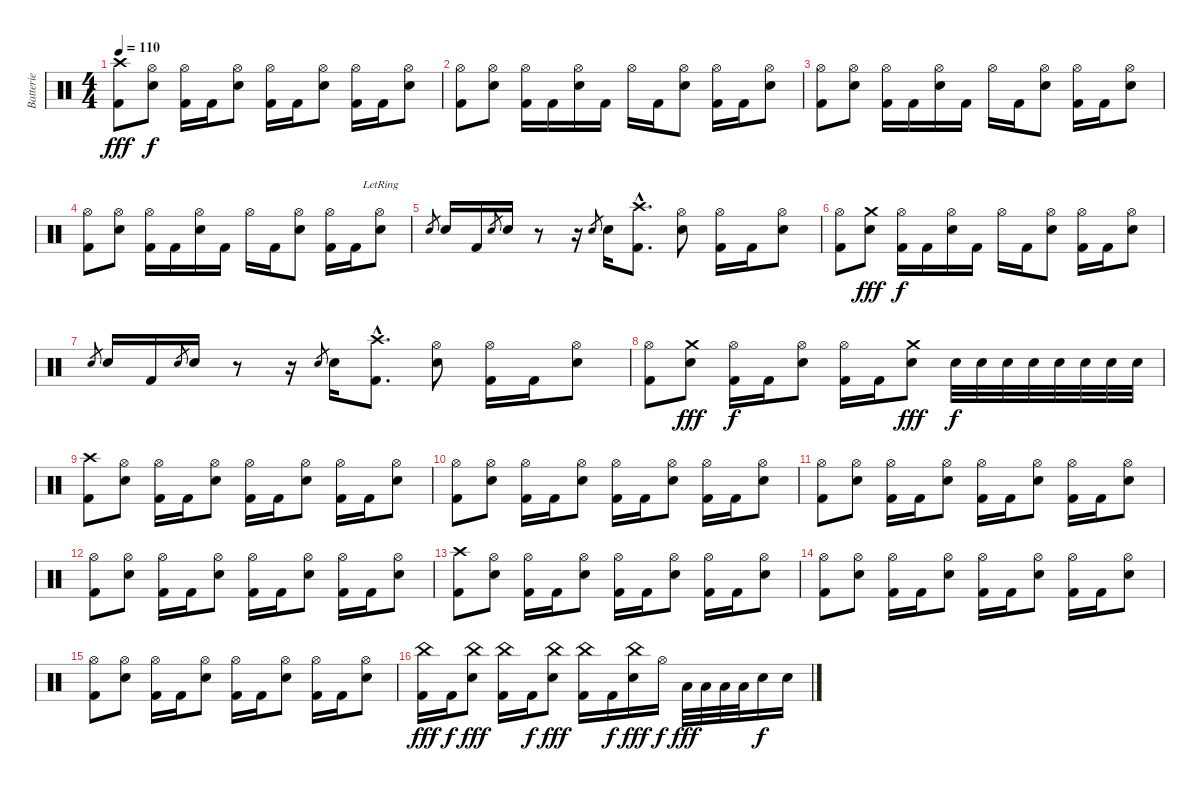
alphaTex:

\track ("Batterie" "Batterie") {instrument percussion}
\staff {score}
\articulation defaults
\ts (4 4)
\tempo 110
\clef neutral
\ks c
("Crash high (hit)" "Kick (hit) 2").8{dy fff} ("Hi-Hat (open)" "Snare (hit) 2").8{dy f} ("Hi-Hat (open)" "Kick (hit) 2").16 "Kick (hit) 2".16 ("Hi-Hat (open)" "Snare (hit) 2").8 ("Hi-Hat (open)" "Kick (hit) 2").16 "Kick (hit) 2".16 ("Hi-Hat (open)" "Snare (hit) 2").8 ("Hi-Hat (open)" "Kick (hit) 2").16 "Kick (hit) 2".16 ("Hi-Hat (open)" "Snare (hit) 2").8 |
("Hi-Hat (open)" "Kick (hit) 2").8 ("Hi-Hat (open)" "Snare (hit) 2").8 ("Hi-Hat (open)" "Kick (hit) 2").16 "Kick (hit) 2".16 ("Hi-Hat (open)" "Snare (hit) 2").16 "Kick (hit) 2".16 "Hi-Hat (open)".16 "Kick (hit) 2".16 ("Hi-Hat (open)" "Snare (hit) 2").8 ("Hi-Hat (open)" "Kick (hit) 2").16 "Kick (hit) 2".16 ("Hi-Hat (open)" "Snare (hit) 2").8 |
("Hi-Hat (open)" "Kick (hit) 2").8 ("Hi-Hat (open)" "Snare (hit) 2").8 ("Hi-Hat (open)" "Kick (hit) 2").16 "Kick (hit) 2".16 ("Hi-Hat (open)" "Snare (hit) 2").16 "Kick (hit) 2".16 "Hi-Hat (open)".16 "Kick (hit) 2".16 ("Hi-Hat (open)" "Snare (hit) 2").8 ("Hi-Hat (open)" "Kick (hit) 2").16 "Kick (hit) 2".16 ("Hi-Hat (open)" "Snare (hit) 2").8 |
("Hi-Hat (open)" "Kick (hit) 2").8 ("Hi-Hat (open)" "Snare (hit) 2").8 ("Hi-Hat (open)" "Kick (hit) 2").16 "Kick (hit) 2".16 ("Hi-Hat (open)" "Snare (hit) 2").16 "Kick (hit) 2".16 "Hi-Hat (open)".16 "Kick (hit) 2".16 ("Hi-Hat (open)" "Snare (hit) 2").8 ("Hi-Hat (open)" "Kick (hit) 2").16 "Kick (hit) 2".16 ("Hi-Hat (open)"{lr} "Snare (hit) 2").8 |
"Snare (hit) 2".8{gr} "Snare (hit) 2".16 "Kick (hit) 2".16 "Snare (hit) 2".8{gr} "Snare (hit) 2".16 r.8 r.16 "Snare (hit) 2".8{gr} "Snare (hit) 2".16 ("Crash high (hit)"{hac} "Kick (hit) 2"{hac}).8{d} ("Hi-Hat (open)" "Snare (hit) 2").8 ("Hi-Hat (open)" "Kick (hit) 2").16 "Kick (hit) 2".16 ("Hi-Hat (open)" "Snare (hit) 2").8 |
("Hi-Hat (open)" "Kick (hit) 2").8 ("Crash medium (hit)" "Snare (hit) 2").8{dy fff} ("Hi-Hat (open)" "Kick (hit) 2").16{dy f} "Kick (hit) 2".16 ("Hi-Hat (open)" "Snare (hit) 2").16 "Kick (hit) 2".16 "Hi-Hat (open)".16 "Kick (hit) 2".16 ("Hi-Hat (open)" "Snare (hit) 2").8 ("Hi-Hat (open)" "Kick (hit) 2").16 "Kick (hit) 2".16 ("Hi-Hat (open)" "Snare (hit) 2").8 |
"Snare (hit) 2".8{gr} "Snare (hit) 2".16 "Kick (hit) 2".16 "Snare (hit) 2".8{gr} "Snare (hit) 2".16 r.8 r.16 "Snare (hit) 2".8{gr} "Snare (hit) 2".16 ("Crash high (hit)"{hac} "Kick (hit) 2"{hac}).8{d} ("Hi-Hat (open)" "Snare (hit) 2").8 ("Hi-Hat (open)" "Kick (hit) 2").16 "Kick (hit) 2".16 ("Hi-Hat (open)" "Snare (hit) 2").8 |
("Hi-Hat (open)" "Kick (hit) 2").8 ("Crash medium (hit)" "Snare (hit) 2").8{dy fff} ("Hi-Hat (open)" "Kick (hit) 2").16{dy f} "Kick (hit) 2".16 ("Hi-Hat (open)" "Snare (hit) 2").8 ("Hi-Hat (open)" "Kick (hit) 2").16 "Kick (hit) 2".16 ("Crash medium (hit)" "Snare (hit) 2").8{dy fff} "Snare (hit) 2".32{dy f} "Snare (hit) 2".32 "Snare (hit) 2".32 "Snare (hit) 2".32 "Snare (hit) 2".32 "Snare (hit) 2".32 "Snare (hit) 2".32 "Snare (hit) 2".32 |
("Crash high (hit)" "Kick (hit) 2").8 ("Hi-Hat (open)" "Snare (hit) 2").8 ("Hi-Hat (open)" "Kick (hit) 2").16 "Kick (hit) 2".16 ("Hi-Hat (open)" "Snare (hit) 2").8 ("Hi-Hat (open)" "Kick (hit) 2").16 "Kick (hit) 2".16 ("Hi-Hat (open)" "Snare (hit) 2").8 ("Hi-Hat (open)" "Kick (hit) 2").16 "Kick (hit) 2".16 ("Hi-Hat (open)" "Snare (hit) 2").8 |
("Hi-Hat (open)" "Kick (hit) 2").8 ("Hi-Hat (open)" "Snare (hit) 2").8 ("Hi-Hat (open)" "Kick (hit) 2").16 "Kick (hit) 2".16 ("Hi-Hat (open)" "Snare (hit) 2").8 ("Hi-Hat (open)" "Kick (hit) 2").16 "Kick (hit) 2".16 ("Hi-Hat (open)" "Snare (hit) 2").8 ("Hi-Hat (open)" "Kick (hit) 2").16 "Kick (hit) 2".16 ("Hi-Hat (open)" "Snare (hit) 2").8 |
("Hi-Hat (open)" "Kick (hit) 2").8 ("Hi-Hat (open)" "Snare (hit) 2").8 ("Hi-Hat (open)" "Kick (hit) 2").16 "Kick (hit) 2".16 ("Hi-Hat (open)" "Snare (hit) 2").8 ("Hi-Hat (open)" "Kick (hit) 2").16 "Kick (hit) 2".16 ("Hi-Hat (open)" "Snare (hit) 2").8 ("Hi-Hat (open)" "Kick (hit) 2").16 "Kick (hit) 2".16 ("Hi-Hat (open)" "Snare (hit) 2").8 |
("Hi-Hat (open)" "Kick (hit) 2").8 ("Hi-Hat (open)" "Snare (hit) 2").8 ("Hi-Hat (open)" "Kick (hit) 2").16 "Kick (hit) 2".16 ("Hi-Hat (open)" "Snare (hit) 2").8 ("Hi-Hat (open)" "Kick (hit) 2").16 "Kick (hit) 2".16 ("Hi-Hat (open)" "Snare (hit) 2").8 ("Hi-Hat (open)" "Kick (hit) 2").16 "Kick (hit) 2".16 ("Hi-Hat (open)" "Snare (hit) 2").8 |
("Crash high (hit)" "Kick (hit) 2").8 ("Hi-Hat (open)" "Snare (hit) 2").8 ("Hi-Hat (open)" "Kick (hit) 2").16 "Kick (hit) 2".16 ("Hi-Hat (open)" "Snare (hit) 2").8 ("Hi-Hat (open)" "Kick (hit) 2").16 "Kick (hit) 2".16 ("Hi-Hat (open)" "Snare (hit) 2").8 ("Hi-Hat (open)" "Kick (hit) 2").16 "Kick (hit) 2".16 ("Hi-Hat (open)" "Snare (hit) 2").8 |
("Hi-Hat (open)" "Kick (hit) 2").8 ("Hi-Hat (open)" "Snare (hit) 2").8 ("Hi-Hat (open)" "Kick (hit) 2").16 "Kick (hit) 2".16 ("Hi-Hat (open)" "Snare (hit) 2").8 ("Hi-Hat (open)" "Kick (hit) 2").16 "Kick (hit) 2".16 ("Hi-Hat (open)" "Snare (hit) 2").8 ("Hi-Hat (open)" "Kick (hit) 2").16 "Kick (hit) 2".16 ("Hi-Hat (open)" "Snare (hit) 2").8 |
("Hi-Hat (open)" "Kick (hit) 2").8 ("Hi-Hat (open)" "Snare (hit) 2").8 ("Hi-Hat (open)" "Kick (hit) 2").16 "Kick (hit) 2".16 ("Hi-Hat (open)" "Snare (hit) 2").8 ("Hi-Hat (open)" "Kick (hit) 2").16 "Kick (hit) 2".16 ("Hi-Hat (open)" "Snare (hit) 2").8 ("Hi-Hat (open)" "Kick (hit) 2").16 "Kick (hit) 2".16 ("Hi-Hat (open)" "Snare (hit) 2").8 |
("China (hit)" "Kick (hit) 2").16{dy fff} "Kick (hit) 2".16{dy f} ("China (hit)" "Snare (hit) 2").8{dy fff} ("China (hit)" "Kick (hit) 2").16 "Kick (hit) 2".16{dy f} ("China (hit)" "Snare (hit) 2").8{dy fff} ("China (hit)" "Kick (hit) 2").16 "Kick (hit) 2".16{dy f} ("China (hit)" "Snare (hit) 2").16{dy fff} "Hi-Hat (open)".16{dy f} "Low Tom (hit)".32{dy fff} "Low Tom (hit)".32 "Low Tom (hit)".32 "Low Tom (hit)".32 "Snare (hit) 2".16{dy f} "Snare (hit) 2".16
